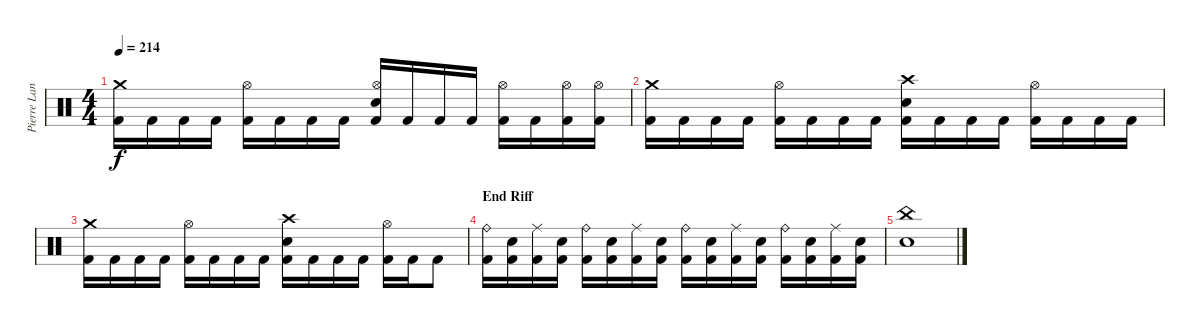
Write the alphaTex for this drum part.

\track ("Pierre Langlois (Drums)" "Pierre Lan") {instrument percussion}
\staff {score}
\articulation defaults
\ts (4 4)
\tempo 214
\clef neutral
\ks c
("Crash medium (hit)" "Kick (hit) 2").16{dy f} "Kick (hit) 2".16 "Kick (hit) 2".16 "Kick (hit) 2".16 ("Hi-Hat (open)" "Kick (hit) 2").16 "Kick (hit) 2".16 "Kick (hit) 2".16 "Kick (hit) 2".16 ("Hi-Hat (open)" "Snare (hit) 2" "Kick (hit) 2").16 "Kick (hit) 2".16 "Kick (hit) 2".16 "Kick (hit) 2".16 ("Hi-Hat (open)" "Kick (hit) 2").16 "Kick (hit) 2".16 ("Hi-Hat (open)" "Kick (hit) 2").16 ("Hi-Hat (open)" "Kick (hit) 2").16 |
("Crash medium (hit)" "Kick (hit) 2").16 "Kick (hit) 2".16 "Kick (hit) 2".16 "Kick (hit) 2".16 ("Hi-Hat (open)" "Kick (hit) 2").16 "Kick (hit) 2".16 "Kick (hit) 2".16 "Kick (hit) 2".16 ("Crash high (hit)" "Snare (hit) 2" "Kick (hit) 2").16 "Kick (hit) 2".16 "Kick (hit) 2".16 "Kick (hit) 2".16 ("Hi-Hat (open)" "Kick (hit) 2").16 "Kick (hit) 2".16 "Kick (hit) 2".16 "Kick (hit) 2".16 |
("Crash medium (hit)" "Kick (hit) 2").16 "Kick (hit) 2".16 "Kick (hit) 2".16 "Kick (hit) 2".16 ("Hi-Hat (open)" "Kick (hit) 2").16 "Kick (hit) 2".16 "Kick (hit) 2".16 "Kick (hit) 2".16 ("Crash high (hit)" "Snare (hit) 2" "Kick (hit) 2").16 "Kick (hit) 2".16 "Kick (hit) 2".16 "Kick (hit) 2".16 ("Hi-Hat (open)" "Kick (hit) 2").16 "Kick (hit) 2".16 "Kick (hit) 2".8 |
\section ("" "End Riff")
("Ride (bell)" "Kick (hit) 2").16 ("Snare (hit) 2" "Kick (hit) 2").16 ("Ride (middle)" "Kick (hit) 2").16 ("Snare (hit) 2" "Kick (hit) 2").16 ("Ride (bell)" "Kick (hit) 2").16 ("Snare (hit) 2" "Kick (hit) 2").16 ("Ride (middle)" "Kick (hit) 2").16 ("Snare (hit) 2" "Kick (hit) 2").16 ("Ride (bell)" "Kick (hit) 2").16 ("Snare (hit) 2" "Kick (hit) 2").16 ("Ride (middle)" "Kick (hit) 2").16 ("Snare (hit) 2" "Kick (hit) 2").16 ("Ride (bell)" "Kick (hit) 2").16 ("Snare (hit) 2" "Kick (hit) 2").16 ("Ride (middle)" "Kick (hit) 2").16 ("Snare (hit) 2" "Kick (hit) 2").16 |
("China (hit)" "Snare (hit) 2").1
